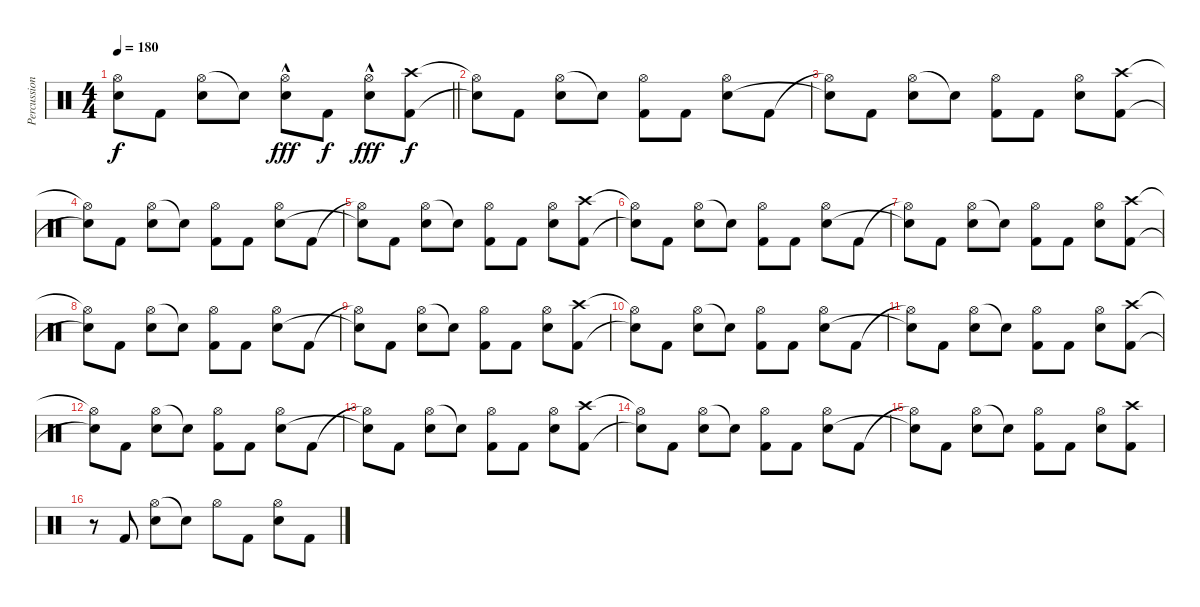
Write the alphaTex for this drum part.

\track ("Percussion" "Percussion") {instrument percussion}
\staff {score}
\articulation defaults
\ts (4 4)
\tempo 180
\clef neutral
\barLineRight lightlight
\ks c
("Hi-Hat (open)"{t} "Snare (hit)"{t}).8{dy f} "Kick (hit) 2".8 ("Hi-Hat (open)" "Electric Snare (hit)").8 "Snare (hit)"{t}.8 ("Hi-Hat (open)"{hac} "Electric Snare (hit)").8{dy fff} "Kick (hit) 2".8{dy f} ("Hi-Hat (open)"{hac} "Electric Snare (hit)").8{dy fff} ("Crash high (hit)" "Kick (hit) 2").8{dy f} |
("Hi-Hat (open)"{t} "Snare (hit)"{t}).8 "Kick (hit) 2".8 ("Hi-Hat (open)" "Electric Snare (hit)").8 "Snare (hit)"{t}.8 ("Hi-Hat (open)" "Kick (hit) 2").8 "Kick (hit) 2".8 ("Hi-Hat (open)" "Electric Snare (hit)").8 "Kick (hit) 2".8 |
("Hi-Hat (open)"{t} "Snare (hit)"{t}).8 "Kick (hit) 2".8 ("Hi-Hat (open)" "Electric Snare (hit)").8 "Snare (hit)"{t}.8 ("Hi-Hat (open)" "Kick (hit) 2").8 "Kick (hit) 2".8 ("Hi-Hat (open)" "Electric Snare (hit)").8 ("Crash high (hit)" "Kick (hit) 2").8 |
("Hi-Hat (open)"{t} "Snare (hit)"{t}).8 "Kick (hit) 2".8 ("Hi-Hat (open)" "Electric Snare (hit)").8 "Snare (hit)"{t}.8 ("Hi-Hat (open)" "Kick (hit) 2").8 "Kick (hit) 2".8 ("Hi-Hat (open)" "Electric Snare (hit)").8 "Kick (hit) 2".8 |
("Hi-Hat (open)"{t} "Snare (hit)"{t}).8 "Kick (hit) 2".8 ("Hi-Hat (open)" "Electric Snare (hit)").8 "Snare (hit)"{t}.8 ("Hi-Hat (open)" "Kick (hit) 2").8 "Kick (hit) 2".8 ("Hi-Hat (open)" "Electric Snare (hit)").8 ("Crash high (hit)" "Kick (hit) 2").8 |
("Hi-Hat (open)"{t} "Snare (hit)"{t}).8 "Kick (hit) 2".8 ("Hi-Hat (open)" "Electric Snare (hit)").8 "Snare (hit)"{t}.8 ("Hi-Hat (open)" "Kick (hit) 2").8 "Kick (hit) 2".8 ("Hi-Hat (open)" "Electric Snare (hit)").8 "Kick (hit) 2".8 |
("Hi-Hat (open)"{t} "Snare (hit)"{t}).8 "Kick (hit) 2".8 ("Hi-Hat (open)" "Electric Snare (hit)").8 "Snare (hit)"{t}.8 ("Hi-Hat (open)" "Kick (hit) 2").8 "Kick (hit) 2".8 ("Hi-Hat (open)" "Electric Snare (hit)").8 ("Crash high (hit)" "Kick (hit) 2").8 |
("Hi-Hat (open)"{t} "Snare (hit)"{t}).8 "Kick (hit) 2".8 ("Hi-Hat (open)" "Electric Snare (hit)").8 "Snare (hit)"{t}.8 ("Hi-Hat (open)" "Kick (hit) 2").8 "Kick (hit) 2".8 ("Hi-Hat (open)" "Electric Snare (hit)").8 "Kick (hit) 2".8 |
("Hi-Hat (open)"{t} "Snare (hit)"{t}).8 "Kick (hit) 2".8 ("Hi-Hat (open)" "Electric Snare (hit)").8 "Snare (hit)"{t}.8 ("Hi-Hat (open)" "Kick (hit) 2").8 "Kick (hit) 2".8 ("Hi-Hat (open)" "Electric Snare (hit)").8 ("Crash high (hit)" "Kick (hit) 2").8 |
("Hi-Hat (open)"{t} "Snare (hit)"{t}).8 "Kick (hit) 2".8 ("Hi-Hat (open)" "Electric Snare (hit)").8 "Snare (hit)"{t}.8 ("Hi-Hat (open)" "Kick (hit) 2").8 "Kick (hit) 2".8 ("Hi-Hat (open)" "Electric Snare (hit)").8 "Kick (hit) 2".8 |
("Hi-Hat (open)"{t} "Snare (hit)"{t}).8 "Kick (hit) 2".8 ("Hi-Hat (open)" "Electric Snare (hit)").8 "Snare (hit)"{t}.8 ("Hi-Hat (open)" "Kick (hit) 2").8 "Kick (hit) 2".8 ("Hi-Hat (open)" "Electric Snare (hit)").8 ("Crash high (hit)" "Kick (hit) 2").8 |
("Hi-Hat (open)"{t} "Snare (hit)"{t}).8 "Kick (hit) 2".8 ("Hi-Hat (open)" "Electric Snare (hit)").8 "Snare (hit)"{t}.8 ("Hi-Hat (open)" "Kick (hit) 2").8 "Kick (hit) 2".8 ("Hi-Hat (open)" "Electric Snare (hit)").8 "Kick (hit) 2".8 |
("Hi-Hat (open)"{t} "Snare (hit)"{t}).8 "Kick (hit) 2".8 ("Hi-Hat (open)" "Electric Snare (hit)").8 "Snare (hit)"{t}.8 ("Hi-Hat (open)" "Kick (hit) 2").8 "Kick (hit) 2".8 ("Hi-Hat (open)" "Electric Snare (hit)").8 ("Crash high (hit)" "Kick (hit) 2").8 |
("Hi-Hat (open)"{t} "Snare (hit)"{t}).8 "Kick (hit) 2".8 ("Hi-Hat (open)" "Electric Snare (hit)").8 "Snare (hit)"{t}.8 ("Hi-Hat (open)" "Kick (hit) 2").8 "Kick (hit) 2".8 ("Hi-Hat (open)" "Electric Snare (hit)").8 "Kick (hit) 2".8 |
("Hi-Hat (open)"{t} "Snare (hit)"{t}).8 "Kick (hit) 2".8 ("Hi-Hat (open)" "Electric Snare (hit)").8 "Snare (hit)"{t}.8 ("Hi-Hat (open)" "Kick (hit) 2").8 "Kick (hit) 2".8 ("Hi-Hat (open)" "Electric Snare (hit)").8 ("Crash high (hit)" "Kick (hit) 2").8 |
r.8 "Kick (hit) 2".8 ("Hi-Hat (open)" "Electric Snare (hit)").8 "Snare (hit)"{t}.8 "Hi-Hat (open)".8 "Kick (hit) 2".8 ("Hi-Hat (open)" "Electric Snare (hit)").8 "Kick (hit) 2".8
